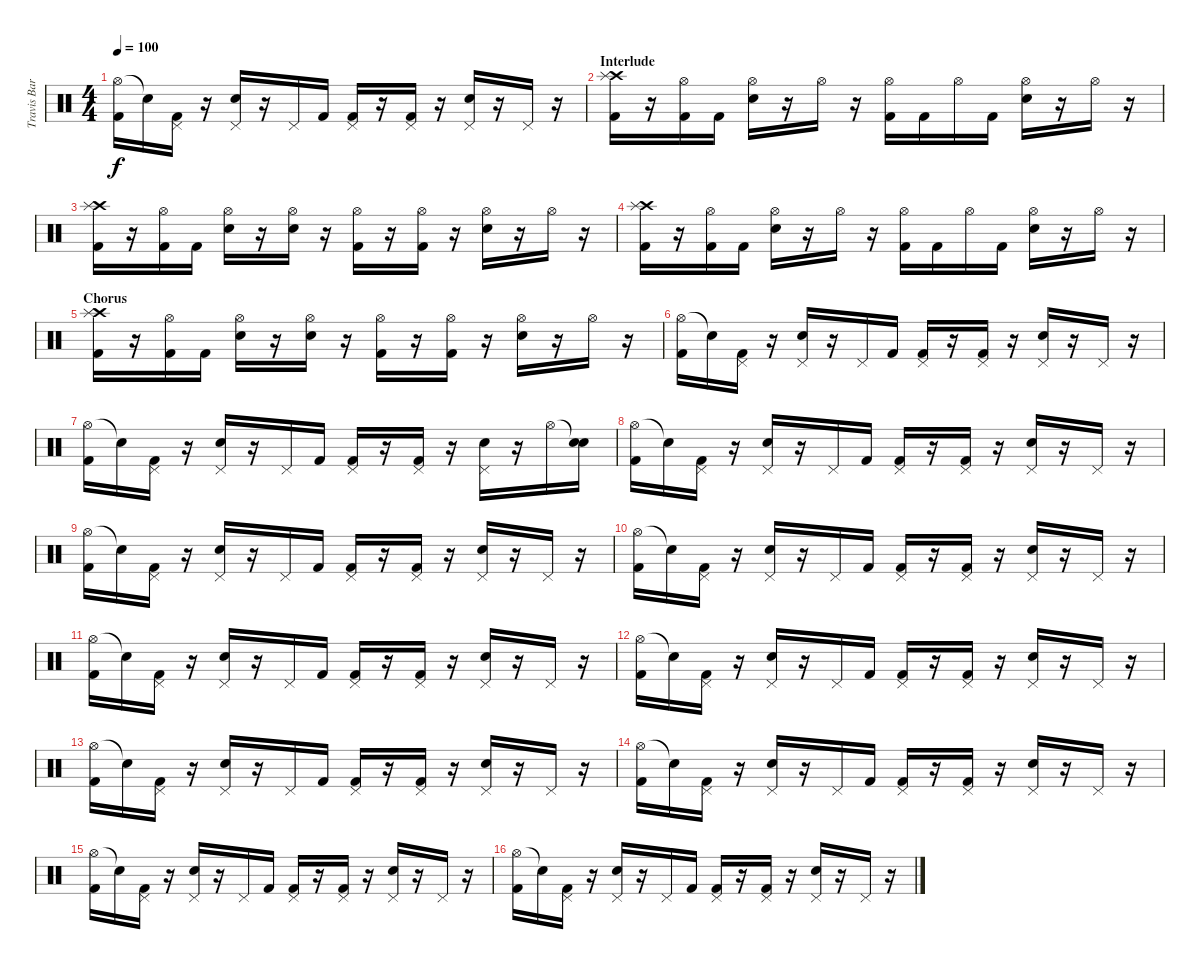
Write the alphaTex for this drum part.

\track ("Travis Barker (Schlagzeug)" "Travis Bar") {instrument percussion}
\staff {score}
\articulation defaults
\ts (4 4)
\tempo 100
\clef neutral
\ks c
("Hi-Hat (open)" "Kick (hit) 2").16{dy f} "Snare (hit)"{t}.16 ("Pedal Hi-Hat (hit)" "Kick (hit) 2").16 r.16 ("Pedal Hi-Hat (hit)" "Electric Snare (hit)").16 r.16 "Pedal Hi-Hat (hit)".16 "Kick (hit) 2".16 ("Pedal Hi-Hat (hit)" "Kick (hit) 2").16 r.16 ("Pedal Hi-Hat (hit)" "Kick (hit) 2").16 r.16 ("Pedal Hi-Hat (hit)" "Electric Snare (hit)").16 r.16 "Pedal Hi-Hat (hit)".16 r.16 |
\section ("" "Interlude")
("Crash high (hit)" "Splash (hit)" "Kick (hit) 2").16 r.16 ("Hi-Hat (open)" "Kick (hit) 2").16 "Kick (hit) 2".16 ("Hi-Hat (open)" "Electric Snare (hit)").16 r.16 "Hi-Hat (open)".16 r.16 ("Hi-Hat (open)" "Kick (hit) 2").16 "Kick (hit) 2".16 "Hi-Hat (open)".16 "Kick (hit) 2".16 ("Hi-Hat (open)" "Electric Snare (hit)").16 r.16 "Hi-Hat (open)".16 r.16 |
("Crash high (hit)" "Splash (hit)" "Kick (hit) 2").16 r.16 ("Hi-Hat (open)" "Kick (hit) 2").16 "Kick (hit) 2".16 ("Hi-Hat (open)" "Electric Snare (hit)").16 r.16 ("Hi-Hat (open)" "Electric Snare (hit)").16 r.16 ("Hi-Hat (open)" "Kick (hit) 2").16 r.16 ("Hi-Hat (open)" "Kick (hit) 2").16 r.16 ("Hi-Hat (open)" "Electric Snare (hit)").16 r.16 "Hi-Hat (open)".16 r.16 |
("Crash high (hit)" "Splash (hit)" "Kick (hit) 2").16 r.16 ("Hi-Hat (open)" "Kick (hit) 2").16 "Kick (hit) 2".16 ("Hi-Hat (open)" "Electric Snare (hit)").16 r.16 "Hi-Hat (open)".16 r.16 ("Hi-Hat (open)" "Kick (hit) 2").16 "Kick (hit) 2".16 "Hi-Hat (open)".16 "Kick (hit) 2".16 ("Hi-Hat (open)" "Electric Snare (hit)").16 r.16 "Hi-Hat (open)".16 r.16 |
\section ("" "Chorus")
("Crash high (hit)" "Splash (hit)" "Kick (hit) 2").16 r.16 ("Hi-Hat (open)" "Kick (hit) 2").16 "Kick (hit) 2".16 ("Hi-Hat (open)" "Electric Snare (hit)").16 r.16 ("Hi-Hat (open)" "Electric Snare (hit)").16 r.16 ("Hi-Hat (open)" "Kick (hit) 2").16 r.16 ("Hi-Hat (open)" "Kick (hit) 2").16 r.16 ("Hi-Hat (open)" "Electric Snare (hit)").16 r.16 "Hi-Hat (open)".16 r.16 |
("Hi-Hat (open)" "Kick (hit) 2").16 "Snare (hit)"{t}.16 ("Pedal Hi-Hat (hit)" "Kick (hit) 2").16 r.16 ("Pedal Hi-Hat (hit)" "Electric Snare (hit)").16 r.16 "Pedal Hi-Hat (hit)".16 "Kick (hit) 2".16 ("Pedal Hi-Hat (hit)" "Kick (hit) 2").16 r.16 ("Pedal Hi-Hat (hit)" "Kick (hit) 2").16 r.16 ("Pedal Hi-Hat (hit)" "Electric Snare (hit)").16 r.16 "Pedal Hi-Hat (hit)".16 r.16 |
("Hi-Hat (open)" "Kick (hit) 2").16 "Snare (hit)"{t}.16 ("Pedal Hi-Hat (hit)" "Kick (hit) 2").16 r.16 ("Pedal Hi-Hat (hit)" "Electric Snare (hit)").16 r.16 "Pedal Hi-Hat (hit)".16 "Kick (hit) 2".16 ("Pedal Hi-Hat (hit)" "Kick (hit) 2").16 r.16 ("Pedal Hi-Hat (hit)" "Kick (hit) 2").16 r.16 ("Pedal Hi-Hat (hit)" "Electric Snare (hit)").16 r.16 "Hi-Hat (open)".16 ("Snare (hit)"{t} "Electric Snare (hit)").16 |
("Hi-Hat (open)" "Kick (hit) 2").16 "Snare (hit)"{t}.16 ("Pedal Hi-Hat (hit)" "Kick (hit) 2").16 r.16 ("Pedal Hi-Hat (hit)" "Electric Snare (hit)").16 r.16 "Pedal Hi-Hat (hit)".16 "Kick (hit) 2".16 ("Pedal Hi-Hat (hit)" "Kick (hit) 2").16 r.16 ("Pedal Hi-Hat (hit)" "Kick (hit) 2").16 r.16 ("Pedal Hi-Hat (hit)" "Electric Snare (hit)").16 r.16 "Pedal Hi-Hat (hit)".16 r.16 |
("Hi-Hat (open)" "Kick (hit) 2").16 "Snare (hit)"{t}.16 ("Pedal Hi-Hat (hit)" "Kick (hit) 2").16 r.16 ("Pedal Hi-Hat (hit)" "Electric Snare (hit)").16 r.16 "Pedal Hi-Hat (hit)".16 "Kick (hit) 2".16 ("Pedal Hi-Hat (hit)" "Kick (hit) 2").16 r.16 ("Pedal Hi-Hat (hit)" "Kick (hit) 2").16 r.16 ("Pedal Hi-Hat (hit)" "Electric Snare (hit)").16 r.16 "Pedal Hi-Hat (hit)".16 r.16 |
("Hi-Hat (open)" "Kick (hit) 2").16 "Snare (hit)"{t}.16 ("Pedal Hi-Hat (hit)" "Kick (hit) 2").16 r.16 ("Pedal Hi-Hat (hit)" "Electric Snare (hit)").16 r.16 "Pedal Hi-Hat (hit)".16 "Kick (hit) 2".16 ("Pedal Hi-Hat (hit)" "Kick (hit) 2").16 r.16 ("Pedal Hi-Hat (hit)" "Kick (hit) 2").16 r.16 ("Pedal Hi-Hat (hit)" "Electric Snare (hit)").16 r.16 "Pedal Hi-Hat (hit)".16 r.16 |
("Hi-Hat (open)" "Kick (hit) 2").16 "Snare (hit)"{t}.16 ("Pedal Hi-Hat (hit)" "Kick (hit) 2").16 r.16 ("Pedal Hi-Hat (hit)" "Electric Snare (hit)").16 r.16 "Pedal Hi-Hat (hit)".16 "Kick (hit) 2".16 ("Pedal Hi-Hat (hit)" "Kick (hit) 2").16 r.16 ("Pedal Hi-Hat (hit)" "Kick (hit) 2").16 r.16 ("Pedal Hi-Hat (hit)" "Electric Snare (hit)").16 r.16 "Pedal Hi-Hat (hit)".16 r.16 |
("Hi-Hat (open)" "Kick (hit) 2").16 "Snare (hit)"{t}.16 ("Pedal Hi-Hat (hit)" "Kick (hit) 2").16 r.16 ("Pedal Hi-Hat (hit)" "Electric Snare (hit)").16 r.16 "Pedal Hi-Hat (hit)".16 "Kick (hit) 2".16 ("Pedal Hi-Hat (hit)" "Kick (hit) 2").16 r.16 ("Pedal Hi-Hat (hit)" "Kick (hit) 2").16 r.16 ("Pedal Hi-Hat (hit)" "Electric Snare (hit)").16 r.16 "Pedal Hi-Hat (hit)".16 r.16 |
("Hi-Hat (open)" "Kick (hit) 2").16 "Snare (hit)"{t}.16 ("Pedal Hi-Hat (hit)" "Kick (hit) 2").16 r.16 ("Pedal Hi-Hat (hit)" "Electric Snare (hit)").16 r.16 "Pedal Hi-Hat (hit)".16 "Kick (hit) 2".16 ("Pedal Hi-Hat (hit)" "Kick (hit) 2").16 r.16 ("Pedal Hi-Hat (hit)" "Kick (hit) 2").16 r.16 ("Pedal Hi-Hat (hit)" "Electric Snare (hit)").16 r.16 "Pedal Hi-Hat (hit)".16 r.16 |
("Hi-Hat (open)" "Kick (hit) 2").16 "Snare (hit)"{t}.16 ("Pedal Hi-Hat (hit)" "Kick (hit) 2").16 r.16 ("Pedal Hi-Hat (hit)" "Electric Snare (hit)").16 r.16 "Pedal Hi-Hat (hit)".16 "Kick (hit) 2".16 ("Pedal Hi-Hat (hit)" "Kick (hit) 2").16 r.16 ("Pedal Hi-Hat (hit)" "Kick (hit) 2").16 r.16 ("Pedal Hi-Hat (hit)" "Electric Snare (hit)").16 r.16 "Pedal Hi-Hat (hit)".16 r.16 |
("Hi-Hat (open)" "Kick (hit) 2").16 "Snare (hit)"{t}.16 ("Pedal Hi-Hat (hit)" "Kick (hit) 2").16 r.16 ("Pedal Hi-Hat (hit)" "Electric Snare (hit)").16 r.16 "Pedal Hi-Hat (hit)".16 "Kick (hit) 2".16 ("Pedal Hi-Hat (hit)" "Kick (hit) 2").16 r.16 ("Pedal Hi-Hat (hit)" "Kick (hit) 2").16 r.16 ("Pedal Hi-Hat (hit)" "Electric Snare (hit)").16 r.16 "Pedal Hi-Hat (hit)".16 r.16 |
("Hi-Hat (open)" "Kick (hit) 2").16 "Snare (hit)"{t}.16 ("Pedal Hi-Hat (hit)" "Kick (hit) 2").16 r.16 ("Pedal Hi-Hat (hit)" "Electric Snare (hit)").16 r.16 "Pedal Hi-Hat (hit)".16 "Kick (hit) 2".16 ("Pedal Hi-Hat (hit)" "Kick (hit) 2").16 r.16 ("Pedal Hi-Hat (hit)" "Kick (hit) 2").16 r.16 ("Pedal Hi-Hat (hit)" "Electric Snare (hit)").16 r.16 "Pedal Hi-Hat (hit)".16 r.16
